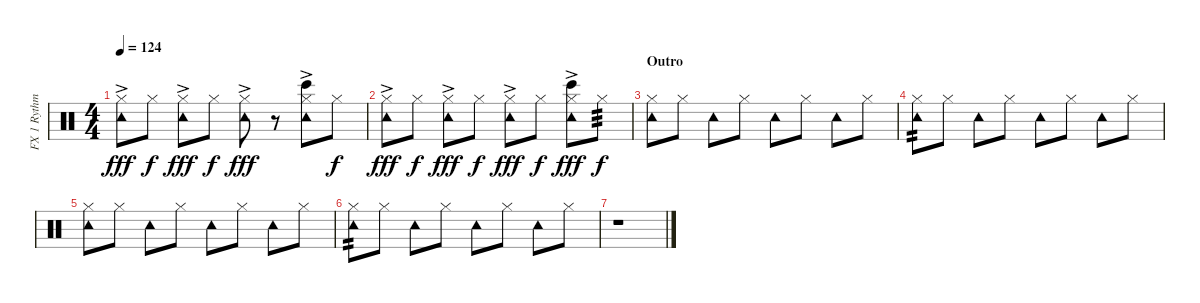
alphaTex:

\track ("FX 1 Rythm" "FX 1 Rythm") {instrument percussion}
\staff {score}
\articulation defaults
\ts (4 4)
\tempo 124
\clef neutral
\ks c
("Tambourine (hit)" "Hi-Hat (closed)"{ac}).8{dy fff} "Hi-Hat (closed)".8{dy f} ("Tambourine (hit)" "Hi-Hat (closed)"{ac}).8{dy fff} "Hi-Hat (closed)".8{dy f} ("Tambourine (hit)" "Hi-Hat (closed)"{ac}).8{dy fff} r.8 ("Tambourine (hit)" "Hi-Hat (closed)"{ac} "Bongo High (hit)").8 "Hi-Hat (closed)".8{dy f} |
("Tambourine (hit)" "Hi-Hat (closed)"{ac}).8{dy fff} "Hi-Hat (closed)".8{dy f} ("Tambourine (hit)" "Hi-Hat (closed)"{ac}).8{dy fff} "Hi-Hat (closed)".8{dy f} ("Tambourine (hit)" "Hi-Hat (closed)"{ac}).8{dy fff} "Hi-Hat (closed)".8{dy f} ("Tambourine (hit)" "Hi-Hat (closed)"{ac} "Bongo High (hit)").8{dy fff} "Hi-Hat (closed)".8{tp 3 dy f} |
\section ("" "Outro")
("Tambourine (hit)" "Hi-Hat (closed)").8 "Hi-Hat (closed)".8 "Tambourine (hit)".8 "Hi-Hat (closed)".8 "Tambourine (hit)".8 "Hi-Hat (closed)".8 "Tambourine (hit)".8 "Hi-Hat (closed)".8 |
("Tambourine (hit)" "Hi-Hat (closed)").8{tp 2} "Hi-Hat (closed)".8 "Tambourine (hit)".8 "Hi-Hat (closed)".8 "Tambourine (hit)".8 "Hi-Hat (closed)".8 "Tambourine (hit)".8 "Hi-Hat (closed)".8 |
("Tambourine (hit)" "Hi-Hat (closed)").8 "Hi-Hat (closed)".8 "Tambourine (hit)".8 "Hi-Hat (closed)".8 "Tambourine (hit)".8 "Hi-Hat (closed)".8 "Tambourine (hit)".8 "Hi-Hat (closed)".8 |
("Tambourine (hit)" "Hi-Hat (closed)").8{tp 2} "Hi-Hat (closed)".8 "Tambourine (hit)".8 "Hi-Hat (closed)".8 "Tambourine (hit)".8 "Hi-Hat (closed)".8 "Tambourine (hit)".8 "Hi-Hat (closed)".8 |
r.1
